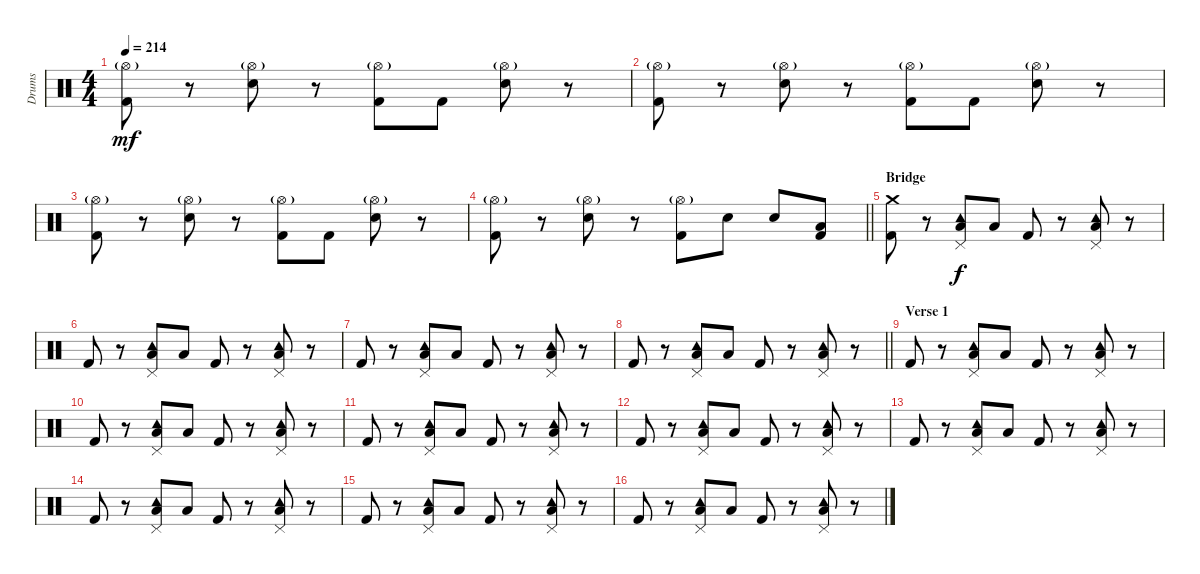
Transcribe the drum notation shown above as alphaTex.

\track ("Drums" "Drums") {instrument percussion}
\staff {score}
\articulation defaults
\ts (4 4)
\tempo 214
\clef neutral
\ks c
("Hi-Hat (open)"{g} "Kick (hit) 2").8{dy mf} r.8 ("Hi-Hat (open)"{g} "Snare (hit) 2").8 r.8 ("Hi-Hat (open)"{g} "Kick (hit) 2").8 "Kick (hit) 2".8 ("Hi-Hat (open)"{g} "Snare (hit) 2").8 r.8 |
("Hi-Hat (open)"{g} "Kick (hit) 2").8 r.8 ("Hi-Hat (open)"{g} "Snare (hit) 2").8 r.8 ("Hi-Hat (open)"{g} "Kick (hit) 2").8 "Kick (hit) 2".8 ("Hi-Hat (open)"{g} "Snare (hit) 2").8 r.8 |
("Hi-Hat (open)"{g} "Kick (hit) 2").8 r.8 ("Hi-Hat (open)"{g} "Snare (hit) 2").8 r.8 ("Hi-Hat (open)"{g} "Kick (hit) 2").8 "Kick (hit) 2".8 ("Hi-Hat (open)"{g} "Snare (hit) 2").8 r.8 |
\barLineRight lightlight
("Hi-Hat (open)"{g} "Kick (hit) 2").8 r.8 ("Hi-Hat (open)"{g} "Snare (hit) 2").8 r.8 ("Hi-Hat (open)"{g} "Kick (hit) 2").8 "Snare (hit) 2".8 "Snare (hit) 2".8 ("Low Floor Tom (hit)" "Kick (hit) 2").8 |
\section ("" "Bridge")
("Crash medium (hit)" "Kick (hit) 2").8 r.8 ("Pedal Hi-Hat (hit)" "Tambourine (hit)" "Low Tom (hit)").8{dy f} "Low Tom (hit)".8 "Kick (hit) 2".8 r.8 ("Pedal Hi-Hat (hit)" "Tambourine (hit)" "Low Tom (hit)").8 r.8 |
"Kick (hit) 2".8 r.8 ("Pedal Hi-Hat (hit)" "Tambourine (hit)" "Low Tom (hit)").8 "Low Tom (hit)".8 "Kick (hit) 2".8 r.8 ("Pedal Hi-Hat (hit)" "Tambourine (hit)" "Low Tom (hit)").8 r.8 |
"Kick (hit) 2".8 r.8 ("Pedal Hi-Hat (hit)" "Tambourine (hit)" "Low Tom (hit)").8 "Low Tom (hit)".8 "Kick (hit) 2".8 r.8 ("Pedal Hi-Hat (hit)" "Tambourine (hit)" "Low Tom (hit)").8 r.8 |
\barLineRight lightlight "Kick (hit) 2".8
r.8 ("Pedal Hi-Hat (hit)" "Tambourine (hit)" "Low Tom (hit)").8 "Low Tom (hit)".8 "Kick (hit) 2".8 r.8 ("Pedal Hi-Hat (hit)" "Tambourine (hit)" "Low Tom (hit)").8 r.8 |
\section ("" "Verse 1")
"Kick (hit) 2".8 r.8 ("Pedal Hi-Hat (hit)" "Tambourine (hit)" "Low Tom (hit)").8 "Low Tom (hit)".8 "Kick (hit) 2".8 r.8 ("Pedal Hi-Hat (hit)" "Tambourine (hit)" "Low Tom (hit)").8 r.8 |
"Kick (hit) 2".8 r.8 ("Pedal Hi-Hat (hit)" "Tambourine (hit)" "Low Tom (hit)").8 "Low Tom (hit)".8 "Kick (hit) 2".8 r.8 ("Pedal Hi-Hat (hit)" "Tambourine (hit)" "Low Tom (hit)").8 r.8 |
"Kick (hit) 2".8 r.8 ("Pedal Hi-Hat (hit)" "Tambourine (hit)" "Low Tom (hit)").8 "Low Tom (hit)".8 "Kick (hit) 2".8 r.8 ("Pedal Hi-Hat (hit)" "Tambourine (hit)" "Low Tom (hit)").8 r.8 |
"Kick (hit) 2".8 r.8 ("Pedal Hi-Hat (hit)" "Tambourine (hit)" "Low Tom (hit)").8 "Low Tom (hit)".8 "Kick (hit) 2".8 r.8 ("Pedal Hi-Hat (hit)" "Tambourine (hit)" "Low Tom (hit)").8 r.8 |
"Kick (hit) 2".8 r.8 ("Pedal Hi-Hat (hit)" "Tambourine (hit)" "Low Tom (hit)").8 "Low Tom (hit)".8 "Kick (hit) 2".8 r.8 ("Pedal Hi-Hat (hit)" "Tambourine (hit)" "Low Tom (hit)").8 r.8 |
"Kick (hit) 2".8 r.8 ("Pedal Hi-Hat (hit)" "Tambourine (hit)" "Low Tom (hit)").8 "Low Tom (hit)".8 "Kick (hit) 2".8 r.8 ("Pedal Hi-Hat (hit)" "Tambourine (hit)" "Low Tom (hit)").8 r.8 |
"Kick (hit) 2".8 r.8 ("Pedal Hi-Hat (hit)" "Tambourine (hit)" "Low Tom (hit)").8 "Low Tom (hit)".8 "Kick (hit) 2".8 r.8 ("Pedal Hi-Hat (hit)" "Tambourine (hit)" "Low Tom (hit)").8 r.8 |
"Kick (hit) 2".8 r.8 ("Pedal Hi-Hat (hit)" "Tambourine (hit)" "Low Tom (hit)").8 "Low Tom (hit)".8 "Kick (hit) 2".8 r.8 ("Pedal Hi-Hat (hit)" "Tambourine (hit)" "Low Tom (hit)").8 r.8
